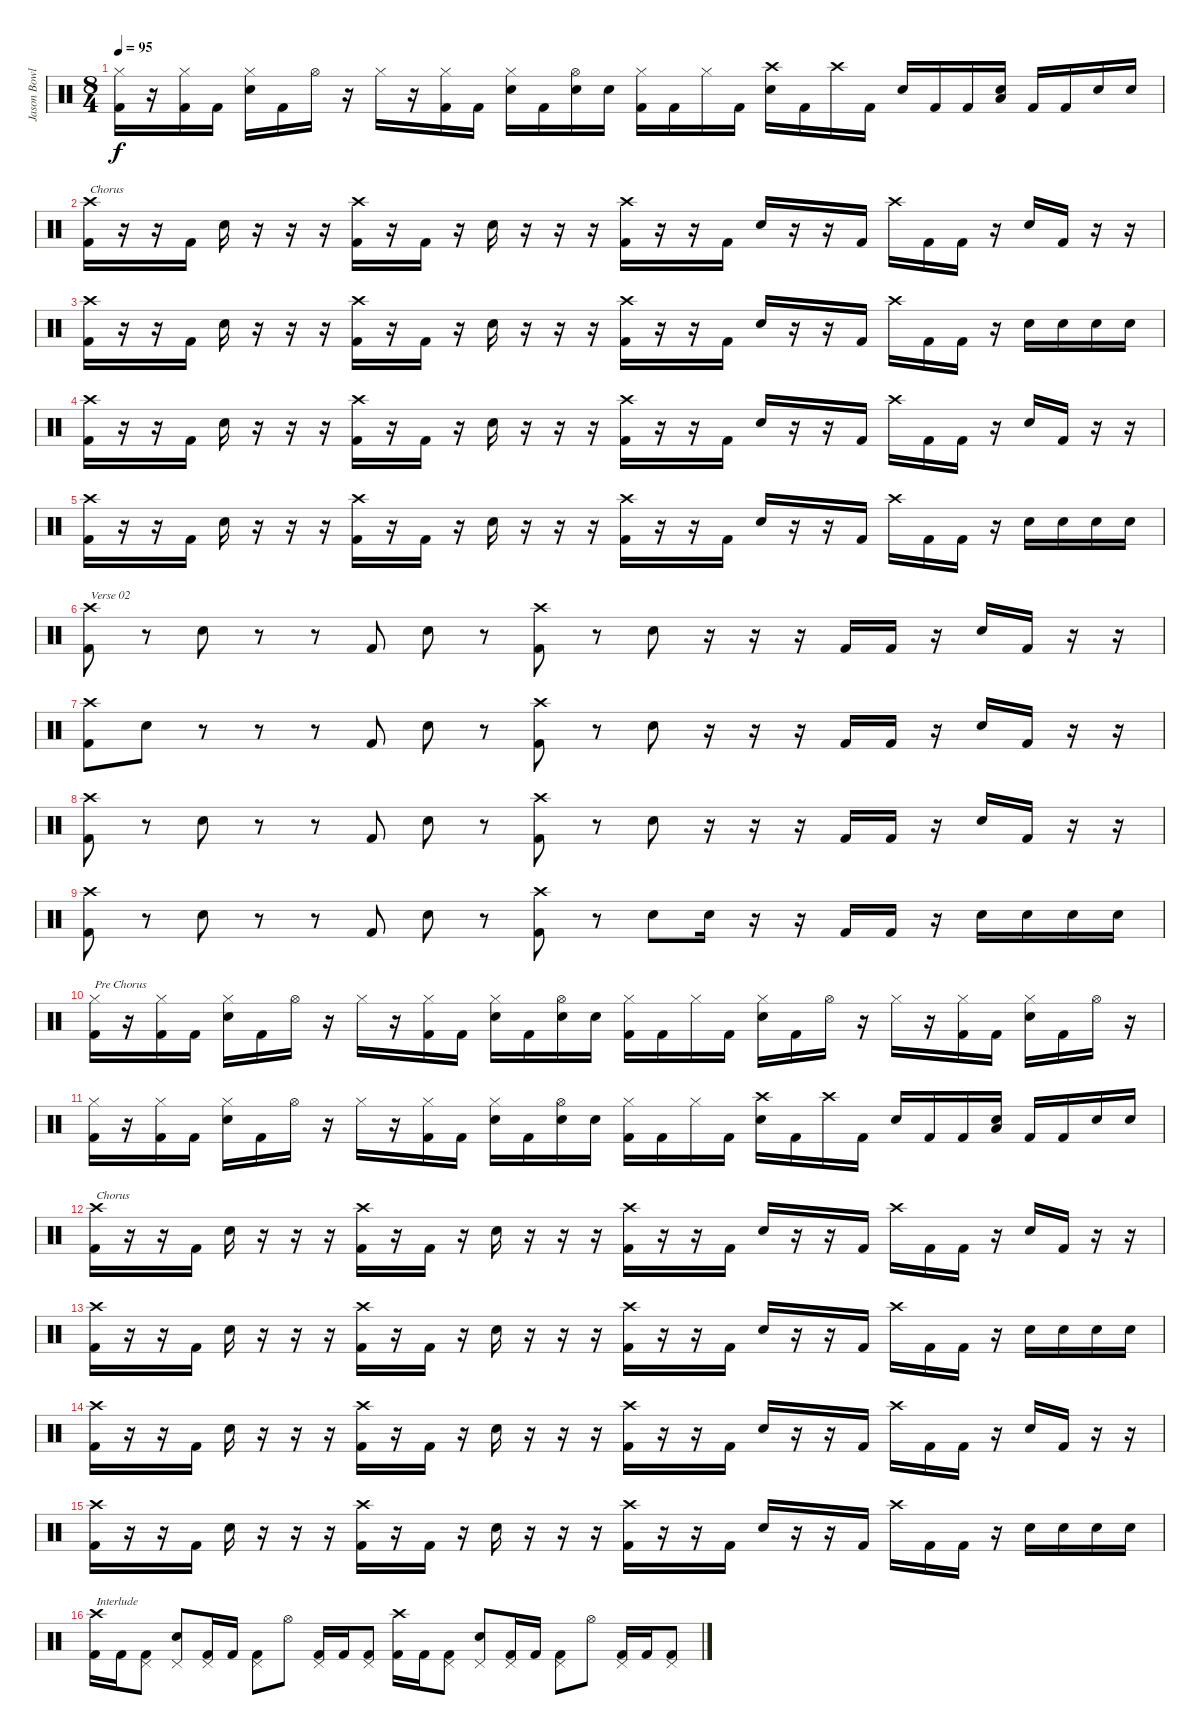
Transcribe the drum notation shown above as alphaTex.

\track ("Jason Bowld" "Jason Bowl") {instrument percussion}
\staff {score}
\articulation defaults
\ts (8 4)
\tempo 95
\clef neutral
\ks c
("Hi-Hat (closed)" "Kick (hit) 2").16{dy f} r.16 ("Hi-Hat (closed)" "Kick (hit) 2").16 "Kick (hit) 2".16 ("Hi-Hat (closed)" "Snare (hit) 2").16 "Kick (hit) 2".16 "Hi-Hat (open)".16 r.16 "Hi-Hat (closed)".16 r.16 ("Hi-Hat (closed)" "Kick (hit) 2").16 "Kick (hit) 2".16 ("Hi-Hat (closed)" "Snare (hit) 2").16 "Kick (hit) 2".16 ("Hi-Hat (open)" "Snare (hit) 2").16 "Snare (hit) 2".16 ("Hi-Hat (closed)" "Kick (hit) 2").16 "Kick (hit) 2".16 "Hi-Hat (closed)".16 "Kick (hit) 2".16 ("Crash high (hit)" "Snare (hit) 2").16 "Kick (hit) 2".16 "Crash high (hit)".16 "Kick (hit) 2".16 "Snare (hit) 2".16 "Kick (hit) 2".16 "Kick (hit) 2".16 ("Low Tom (hit)" "Snare (hit) 2").16 "Kick (hit) 2".16 "Kick (hit) 2".16 "Snare (hit) 2".16 "Snare (hit) 2".16 |
("Kick (hit) 2" "Crash high (hit)").16{txt "Chorus"} r.16 r.16 "Kick (hit) 2".16 "Snare (hit) 2".16 r.16 r.16 r.16 ("Kick (hit) 2" "Crash high (hit)").16 r.16 "Kick (hit) 2".16 r.16 "Snare (hit) 2".16 r.16 r.16 r.16 ("Kick (hit) 2" "Crash high (hit)").16 r.16 r.16 "Kick (hit) 2".16 "Snare (hit) 2".16 r.16 r.16 "Kick (hit) 2".16 "Crash high (hit)".16 "Kick (hit) 2".16 "Kick (hit) 2".16 r.16 "Snare (hit) 2".16 "Kick (hit) 2".16 r.16 r.16 |
("Kick (hit) 2" "Crash high (hit)").16 r.16 r.16 "Kick (hit) 2".16 "Snare (hit) 2".16 r.16 r.16 r.16 ("Kick (hit) 2" "Crash high (hit)").16 r.16 "Kick (hit) 2".16 r.16 "Snare (hit) 2".16 r.16 r.16 r.16 ("Kick (hit) 2" "Crash high (hit)").16 r.16 r.16 "Kick (hit) 2".16 "Snare (hit) 2".16 r.16 r.16 "Kick (hit) 2".16 "Crash high (hit)".16 "Kick (hit) 2".16 "Kick (hit) 2".16 r.16 "Snare (hit) 2".16 "Snare (hit) 2".16 "Snare (hit) 2".16 "Snare (hit) 2".16 |
("Kick (hit) 2" "Crash high (hit)").16 r.16 r.16 "Kick (hit) 2".16 "Snare (hit) 2".16 r.16 r.16 r.16 ("Kick (hit) 2" "Crash high (hit)").16 r.16 "Kick (hit) 2".16 r.16 "Snare (hit) 2".16 r.16 r.16 r.16 ("Kick (hit) 2" "Crash high (hit)").16 r.16 r.16 "Kick (hit) 2".16 "Snare (hit) 2".16 r.16 r.16 "Kick (hit) 2".16 "Crash high (hit)".16 "Kick (hit) 2".16 "Kick (hit) 2".16 r.16 "Snare (hit) 2".16 "Kick (hit) 2".16 r.16 r.16 |
("Kick (hit) 2" "Crash high (hit)").16 r.16 r.16 "Kick (hit) 2".16 "Snare (hit) 2".16 r.16 r.16 r.16 ("Kick (hit) 2" "Crash high (hit)").16 r.16 "Kick (hit) 2".16 r.16 "Snare (hit) 2".16 r.16 r.16 r.16 ("Kick (hit) 2" "Crash high (hit)").16 r.16 r.16 "Kick (hit) 2".16 "Snare (hit) 2".16 r.16 r.16 "Kick (hit) 2".16 "Crash high (hit)".16 "Kick (hit) 2".16 "Kick (hit) 2".16 r.16 "Snare (hit) 2".16 "Snare (hit) 2".16 "Snare (hit) 2".16 "Snare (hit) 2".16 |
("Kick (hit) 2" "Crash high (hit)"{nh}).8{txt "Verse 02"} r.8 "Snare (hit) 2".8 r.8 r.8 "Kick (hit) 2".8 "Snare (hit) 2".8 r.8 ("Kick (hit) 2" "Crash high (hit)"{nh}).8 r.8 "Snare (hit) 2".8 r.16 r.16 r.16 "Kick (hit) 2".16 "Kick (hit) 2".16 r.16 "Snare (hit) 2".16 "Kick (hit) 2".16 r.16 r.16 |
("Kick (hit) 2" "Crash high (hit)"{nh}).8 "Snare (hit) 2".8 r.8 r.8 r.8 "Kick (hit) 2".8 "Snare (hit) 2".8 r.8 ("Kick (hit) 2" "Crash high (hit)"{nh}).8 r.8 "Snare (hit) 2".8 r.16 r.16 r.16 "Kick (hit) 2".16 "Kick (hit) 2".16 r.16 "Snare (hit) 2".16 "Kick (hit) 2".16 r.16 r.16 |
("Kick (hit) 2" "Crash high (hit)"{nh}).8 r.8 "Snare (hit) 2".8 r.8 r.8 "Kick (hit) 2".8 "Snare (hit) 2".8 r.8 ("Kick (hit) 2" "Crash high (hit)"{nh}).8 r.8 "Snare (hit) 2".8 r.16 r.16 r.16 "Kick (hit) 2".16 "Kick (hit) 2".16 r.16 "Snare (hit) 2".16 "Kick (hit) 2".16 r.16 r.16 |
("Kick (hit) 2" "Crash high (hit)"{nh}).8 r.8 "Snare (hit) 2".8 r.8 r.8 "Kick (hit) 2".8 "Snare (hit) 2".8 r.8 ("Kick (hit) 2" "Crash high (hit)"{nh}).8 r.8 "Snare (hit) 2".8 "Snare (hit) 2".16 r.16 r.16 "Kick (hit) 2".16 "Kick (hit) 2".16 r.16 "Snare (hit) 2".16 "Snare (hit) 2".16 "Snare (hit) 2".16 "Snare (hit) 2".16 |
("Hi-Hat (closed)" "Kick (hit) 2").16{txt "Pre Chorus"} r.16 ("Hi-Hat (closed)" "Kick (hit) 2").16 "Kick (hit) 2".16 ("Hi-Hat (closed)" "Snare (hit) 2").16 "Kick (hit) 2".16 "Hi-Hat (open)".16 r.16 "Hi-Hat (closed)".16 r.16 ("Hi-Hat (closed)" "Kick (hit) 2").16 "Kick (hit) 2".16 ("Hi-Hat (closed)" "Snare (hit) 2").16 "Kick (hit) 2".16 ("Hi-Hat (open)" "Snare (hit) 2").16 "Snare (hit) 2".16 ("Hi-Hat (closed)" "Kick (hit) 2").16 "Kick (hit) 2".16 "Hi-Hat (closed)".16 "Kick (hit) 2".16 ("Hi-Hat (closed)" "Snare (hit) 2").16 "Kick (hit) 2".16 "Hi-Hat (open)".16 r.16 "Hi-Hat (closed)".16 r.16 ("Hi-Hat (closed)" "Kick (hit) 2").16 "Kick (hit) 2".16 ("Hi-Hat (closed)" "Snare (hit) 2").16 "Kick (hit) 2".16 "Hi-Hat (open)".16 r.16 |
("Hi-Hat (closed)" "Kick (hit) 2").16 r.16 ("Hi-Hat (closed)" "Kick (hit) 2").16 "Kick (hit) 2".16 ("Hi-Hat (closed)" "Snare (hit) 2").16 "Kick (hit) 2".16 "Hi-Hat (open)".16 r.16 "Hi-Hat (closed)".16 r.16 ("Hi-Hat (closed)" "Kick (hit) 2").16 "Kick (hit) 2".16 ("Hi-Hat (closed)" "Snare (hit) 2").16 "Kick (hit) 2".16 ("Hi-Hat (open)" "Snare (hit) 2").16 "Snare (hit) 2".16 ("Hi-Hat (closed)" "Kick (hit) 2").16 "Kick (hit) 2".16 "Hi-Hat (closed)".16 "Kick (hit) 2".16 ("Crash high (hit)" "Snare (hit) 2").16 "Kick (hit) 2".16 "Crash high (hit)".16 "Kick (hit) 2".16 "Snare (hit) 2".16 "Kick (hit) 2".16 "Kick (hit) 2".16 ("Low Tom (hit)" "Snare (hit) 2").16 "Kick (hit) 2".16 "Kick (hit) 2".16 "Snare (hit) 2".16 "Snare (hit) 2".16 |
("Kick (hit) 2" "Crash high (hit)").16{txt "Chorus"} r.16 r.16 "Kick (hit) 2".16 "Snare (hit) 2".16 r.16 r.16 r.16 ("Kick (hit) 2" "Crash high (hit)").16 r.16 "Kick (hit) 2".16 r.16 "Snare (hit) 2".16 r.16 r.16 r.16 ("Kick (hit) 2" "Crash high (hit)").16 r.16 r.16 "Kick (hit) 2".16 "Snare (hit) 2".16 r.16 r.16 "Kick (hit) 2".16 "Crash high (hit)".16 "Kick (hit) 2".16 "Kick (hit) 2".16 r.16 "Snare (hit) 2".16 "Kick (hit) 2".16 r.16 r.16 |
("Kick (hit) 2" "Crash high (hit)").16 r.16 r.16 "Kick (hit) 2".16 "Snare (hit) 2".16 r.16 r.16 r.16 ("Kick (hit) 2" "Crash high (hit)").16 r.16 "Kick (hit) 2".16 r.16 "Snare (hit) 2".16 r.16 r.16 r.16 ("Kick (hit) 2" "Crash high (hit)").16 r.16 r.16 "Kick (hit) 2".16 "Snare (hit) 2".16 r.16 r.16 "Kick (hit) 2".16 "Crash high (hit)".16 "Kick (hit) 2".16 "Kick (hit) 2".16 r.16 "Snare (hit) 2".16 "Snare (hit) 2".16 "Snare (hit) 2".16 "Snare (hit) 2".16 |
("Kick (hit) 2" "Crash high (hit)").16 r.16 r.16 "Kick (hit) 2".16 "Snare (hit) 2".16 r.16 r.16 r.16 ("Kick (hit) 2" "Crash high (hit)").16 r.16 "Kick (hit) 2".16 r.16 "Snare (hit) 2".16 r.16 r.16 r.16 ("Kick (hit) 2" "Crash high (hit)").16 r.16 r.16 "Kick (hit) 2".16 "Snare (hit) 2".16 r.16 r.16 "Kick (hit) 2".16 "Crash high (hit)".16 "Kick (hit) 2".16 "Kick (hit) 2".16 r.16 "Snare (hit) 2".16 "Kick (hit) 2".16 r.16 r.16 |
("Kick (hit) 2" "Crash high (hit)").16 r.16 r.16 "Kick (hit) 2".16 "Snare (hit) 2".16 r.16 r.16 r.16 ("Kick (hit) 2" "Crash high (hit)").16 r.16 "Kick (hit) 2".16 r.16 "Snare (hit) 2".16 r.16 r.16 r.16 ("Kick (hit) 2" "Crash high (hit)").16 r.16 r.16 "Kick (hit) 2".16 "Snare (hit) 2".16 r.16 r.16 "Kick (hit) 2".16 "Crash high (hit)".16 "Kick (hit) 2".16 "Kick (hit) 2".16 r.16 "Snare (hit) 2".16 "Snare (hit) 2".16 "Snare (hit) 2".16 "Snare (hit) 2".16 |
("Kick (hit) 2" "Crash high (hit)").16{txt "Interlude"} "Kick (hit) 2".16 ("Kick (hit) 2" "Pedal Hi-Hat (hit)").8 ("Snare (hit) 2" "Pedal Hi-Hat (hit)").8 ("Kick (hit) 2" "Pedal Hi-Hat (hit)").16 "Kick (hit) 2".16 ("Kick (hit) 2" "Pedal Hi-Hat (hit)").8 "Hi-Hat (open)".8 ("Kick (hit) 2" "Pedal Hi-Hat (hit)").16 "Kick (hit) 2".16 ("Kick (hit) 2" "Pedal Hi-Hat (hit)").8 ("Kick (hit) 2" "Crash high (hit)").16 "Kick (hit) 2".16 ("Kick (hit) 2" "Pedal Hi-Hat (hit)").8 ("Snare (hit) 2" "Pedal Hi-Hat (hit)").8 ("Kick (hit) 2" "Pedal Hi-Hat (hit)").16 "Kick (hit) 2".16 ("Kick (hit) 2" "Pedal Hi-Hat (hit)").8 "Hi-Hat (open)".8 ("Kick (hit) 2" "Pedal Hi-Hat (hit)").16 "Kick (hit) 2".16 ("Kick (hit) 2" "Pedal Hi-Hat (hit)").8
